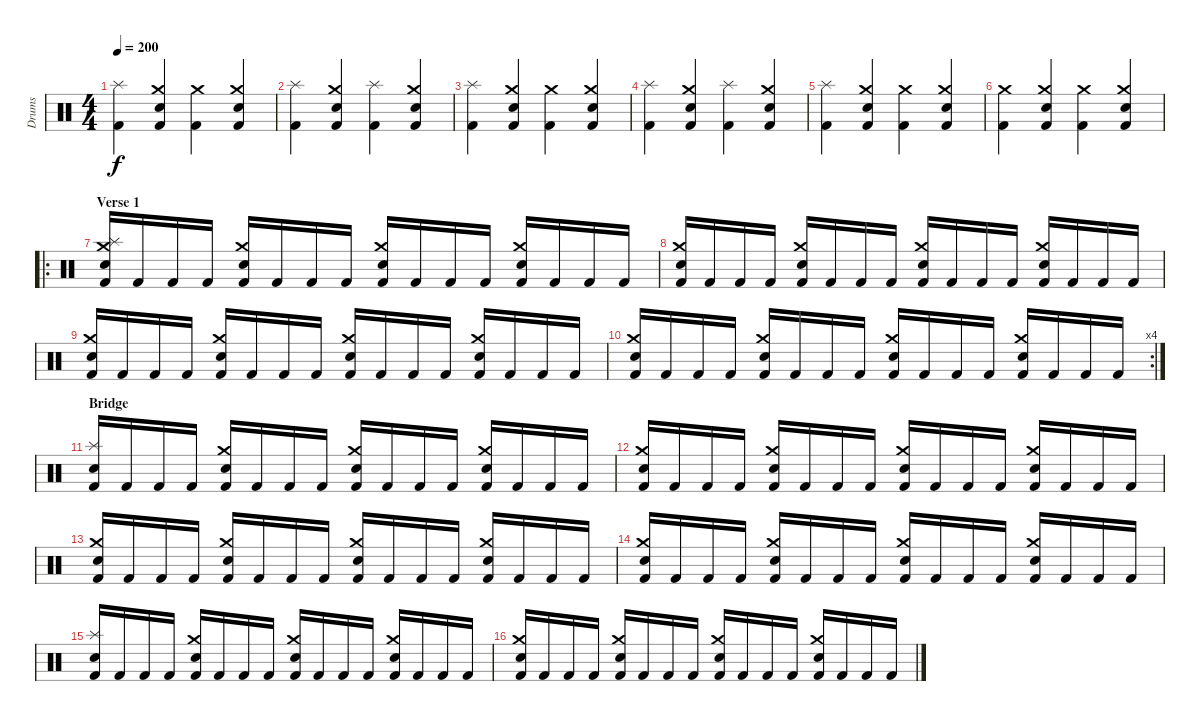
\track ("Drums" "Drums") {instrument percussion}
\staff {score}
\articulation defaults
\ts (4 4)
\tempo 200
\clef neutral
\ks c
("Kick (hit) 2" "Splash (hit)").4{dy f} ("Kick (hit) 2" "Crash medium (hit)" "Electric Snare (hit)").4 ("Kick (hit) 2" "Crash medium (hit)").4 ("Kick (hit) 2" "Crash medium (hit)" "Electric Snare (hit)").4 |
("Kick (hit) 2" "Splash (hit)").4 ("Kick (hit) 2" "Crash medium (hit)" "Electric Snare (hit)").4 ("Kick (hit) 2" "Splash (hit)").4 ("Kick (hit) 2" "Crash medium (hit)" "Electric Snare (hit)").4 |
("Kick (hit) 2" "Splash (hit)").4 ("Kick (hit) 2" "Crash medium (hit)" "Electric Snare (hit)").4 ("Kick (hit) 2" "Crash medium (hit)").4 ("Kick (hit) 2" "Crash medium (hit)" "Electric Snare (hit)").4 |
("Kick (hit) 2" "Splash (hit)").4 ("Kick (hit) 2" "Crash medium (hit)" "Electric Snare (hit)").4 ("Kick (hit) 2" "Splash (hit)").4 ("Kick (hit) 2" "Crash medium (hit)" "Electric Snare (hit)").4 |
("Kick (hit) 2" "Splash (hit)").4 ("Kick (hit) 2" "Crash medium (hit)" "Electric Snare (hit)").4 ("Kick (hit) 2" "Crash medium (hit)").4 ("Kick (hit) 2" "Crash medium (hit)" "Electric Snare (hit)").4 |
("Kick (hit) 2" "Crash medium (hit)").4 ("Kick (hit) 2" "Crash medium (hit)" "Electric Snare (hit)").4 ("Kick (hit) 2" "Crash medium (hit)").4 ("Kick (hit) 2" "Crash medium (hit)" "Electric Snare (hit)").4 |
\ro
\section ("" "Verse 1")
("Kick (hit) 2" "Crash medium (hit)" "Snare (hit) 2" "Splash (hit)").16 "Kick (hit) 2".16 "Kick (hit) 2".16 "Kick (hit) 2".16 ("Kick (hit) 2" "Crash medium (hit)" "Snare (hit) 2").16 "Kick (hit) 2".16 "Kick (hit) 2".16 "Kick (hit) 2".16 ("Kick (hit) 2" "Crash medium (hit)" "Snare (hit) 2").16 "Kick (hit) 2".16 "Kick (hit) 2".16 "Kick (hit) 2".16 ("Kick (hit) 2" "Crash medium (hit)" "Snare (hit) 2").16 "Kick (hit) 2".16 "Kick (hit) 2".16 "Kick (hit) 2".16 |
("Kick (hit) 2" "Crash medium (hit)" "Snare (hit) 2").16 "Kick (hit) 2".16 "Kick (hit) 2".16 "Kick (hit) 2".16 ("Kick (hit) 2" "Crash medium (hit)" "Snare (hit) 2").16 "Kick (hit) 2".16 "Kick (hit) 2".16 "Kick (hit) 2".16 ("Kick (hit) 2" "Crash medium (hit)" "Snare (hit) 2").16 "Kick (hit) 2".16 "Kick (hit) 2".16 "Kick (hit) 2".16 ("Kick (hit) 2" "Crash medium (hit)" "Snare (hit) 2").16 "Kick (hit) 2".16 "Kick (hit) 2".16 "Kick (hit) 2".16 |
("Kick (hit) 2" "Crash medium (hit)" "Snare (hit) 2").16 "Kick (hit) 2".16 "Kick (hit) 2".16 "Kick (hit) 2".16 ("Kick (hit) 2" "Crash medium (hit)" "Snare (hit) 2").16 "Kick (hit) 2".16 "Kick (hit) 2".16 "Kick (hit) 2".16 ("Kick (hit) 2" "Crash medium (hit)" "Snare (hit) 2").16 "Kick (hit) 2".16 "Kick (hit) 2".16 "Kick (hit) 2".16 ("Kick (hit) 2" "Crash medium (hit)" "Snare (hit) 2").16 "Kick (hit) 2".16 "Kick (hit) 2".16 "Kick (hit) 2".16 |
\rc 4
("Kick (hit) 2" "Crash medium (hit)" "Snare (hit) 2").16 "Kick (hit) 2".16 "Kick (hit) 2".16 "Kick (hit) 2".16 ("Kick (hit) 2" "Crash medium (hit)" "Snare (hit) 2").16 "Kick (hit) 2".16 "Kick (hit) 2".16 "Kick (hit) 2".16 ("Kick (hit) 2" "Crash medium (hit)" "Snare (hit) 2").16 "Kick (hit) 2".16 "Kick (hit) 2".16 "Kick (hit) 2".16 ("Kick (hit) 2" "Crash medium (hit)" "Snare (hit) 2").16 "Kick (hit) 2".16 "Kick (hit) 2".16 "Kick (hit) 2".16 |
\section ("" "Bridge")
("Kick (hit) 2" "Snare (hit) 2" "Splash (hit)").16 "Kick (hit) 2".16 "Kick (hit) 2".16 "Kick (hit) 2".16 ("Kick (hit) 2" "Crash medium (hit)" "Snare (hit) 2").16 "Kick (hit) 2".16 "Kick (hit) 2".16 "Kick (hit) 2".16 ("Kick (hit) 2" "Crash medium (hit)" "Snare (hit) 2").16 "Kick (hit) 2".16 "Kick (hit) 2".16 "Kick (hit) 2".16 ("Kick (hit) 2" "Crash medium (hit)" "Snare (hit) 2").16 "Kick (hit) 2".16 "Kick (hit) 2".16 "Kick (hit) 2".16 |
("Kick (hit) 2" "Crash medium (hit)" "Snare (hit) 2").16 "Kick (hit) 2".16 "Kick (hit) 2".16 "Kick (hit) 2".16 ("Kick (hit) 2" "Crash medium (hit)" "Snare (hit) 2").16 "Kick (hit) 2".16 "Kick (hit) 2".16 "Kick (hit) 2".16 ("Kick (hit) 2" "Crash medium (hit)" "Snare (hit) 2").16 "Kick (hit) 2".16 "Kick (hit) 2".16 "Kick (hit) 2".16 ("Kick (hit) 2" "Crash medium (hit)" "Snare (hit) 2").16 "Kick (hit) 2".16 "Kick (hit) 2".16 "Kick (hit) 2".16 |
("Kick (hit) 2" "Crash medium (hit)" "Snare (hit) 2").16 "Kick (hit) 2".16 "Kick (hit) 2".16 "Kick (hit) 2".16 ("Kick (hit) 2" "Crash medium (hit)" "Snare (hit) 2").16 "Kick (hit) 2".16 "Kick (hit) 2".16 "Kick (hit) 2".16 ("Kick (hit) 2" "Crash medium (hit)" "Snare (hit) 2").16 "Kick (hit) 2".16 "Kick (hit) 2".16 "Kick (hit) 2".16 ("Kick (hit) 2" "Crash medium (hit)" "Snare (hit) 2").16 "Kick (hit) 2".16 "Kick (hit) 2".16 "Kick (hit) 2".16 |
("Kick (hit) 2" "Crash medium (hit)" "Snare (hit) 2").16 "Kick (hit) 2".16 "Kick (hit) 2".16 "Kick (hit) 2".16 ("Kick (hit) 2" "Crash medium (hit)" "Snare (hit) 2").16 "Kick (hit) 2".16 "Kick (hit) 2".16 "Kick (hit) 2".16 ("Kick (hit) 2" "Crash medium (hit)" "Snare (hit) 2").16 "Kick (hit) 2".16 "Kick (hit) 2".16 "Kick (hit) 2".16 ("Kick (hit) 2" "Crash medium (hit)" "Snare (hit) 2").16 "Kick (hit) 2".16 "Kick (hit) 2".16 "Kick (hit) 2".16 |
("Kick (hit) 2" "Snare (hit) 2" "Splash (hit)").16 "Kick (hit) 2".16 "Kick (hit) 2".16 "Kick (hit) 2".16 ("Kick (hit) 2" "Crash medium (hit)" "Snare (hit) 2").16 "Kick (hit) 2".16 "Kick (hit) 2".16 "Kick (hit) 2".16 ("Kick (hit) 2" "Crash medium (hit)" "Snare (hit) 2").16 "Kick (hit) 2".16 "Kick (hit) 2".16 "Kick (hit) 2".16 ("Kick (hit) 2" "Crash medium (hit)" "Snare (hit) 2").16 "Kick (hit) 2".16 "Kick (hit) 2".16 "Kick (hit) 2".16 |
("Kick (hit) 2" "Crash medium (hit)" "Snare (hit) 2").16 "Kick (hit) 2".16 "Kick (hit) 2".16 "Kick (hit) 2".16 ("Kick (hit) 2" "Crash medium (hit)" "Snare (hit) 2").16 "Kick (hit) 2".16 "Kick (hit) 2".16 "Kick (hit) 2".16 ("Kick (hit) 2" "Crash medium (hit)" "Snare (hit) 2").16 "Kick (hit) 2".16 "Kick (hit) 2".16 "Kick (hit) 2".16 ("Kick (hit) 2" "Crash medium (hit)" "Snare (hit) 2").16 "Kick (hit) 2".16 "Kick (hit) 2".16 "Kick (hit) 2".16
